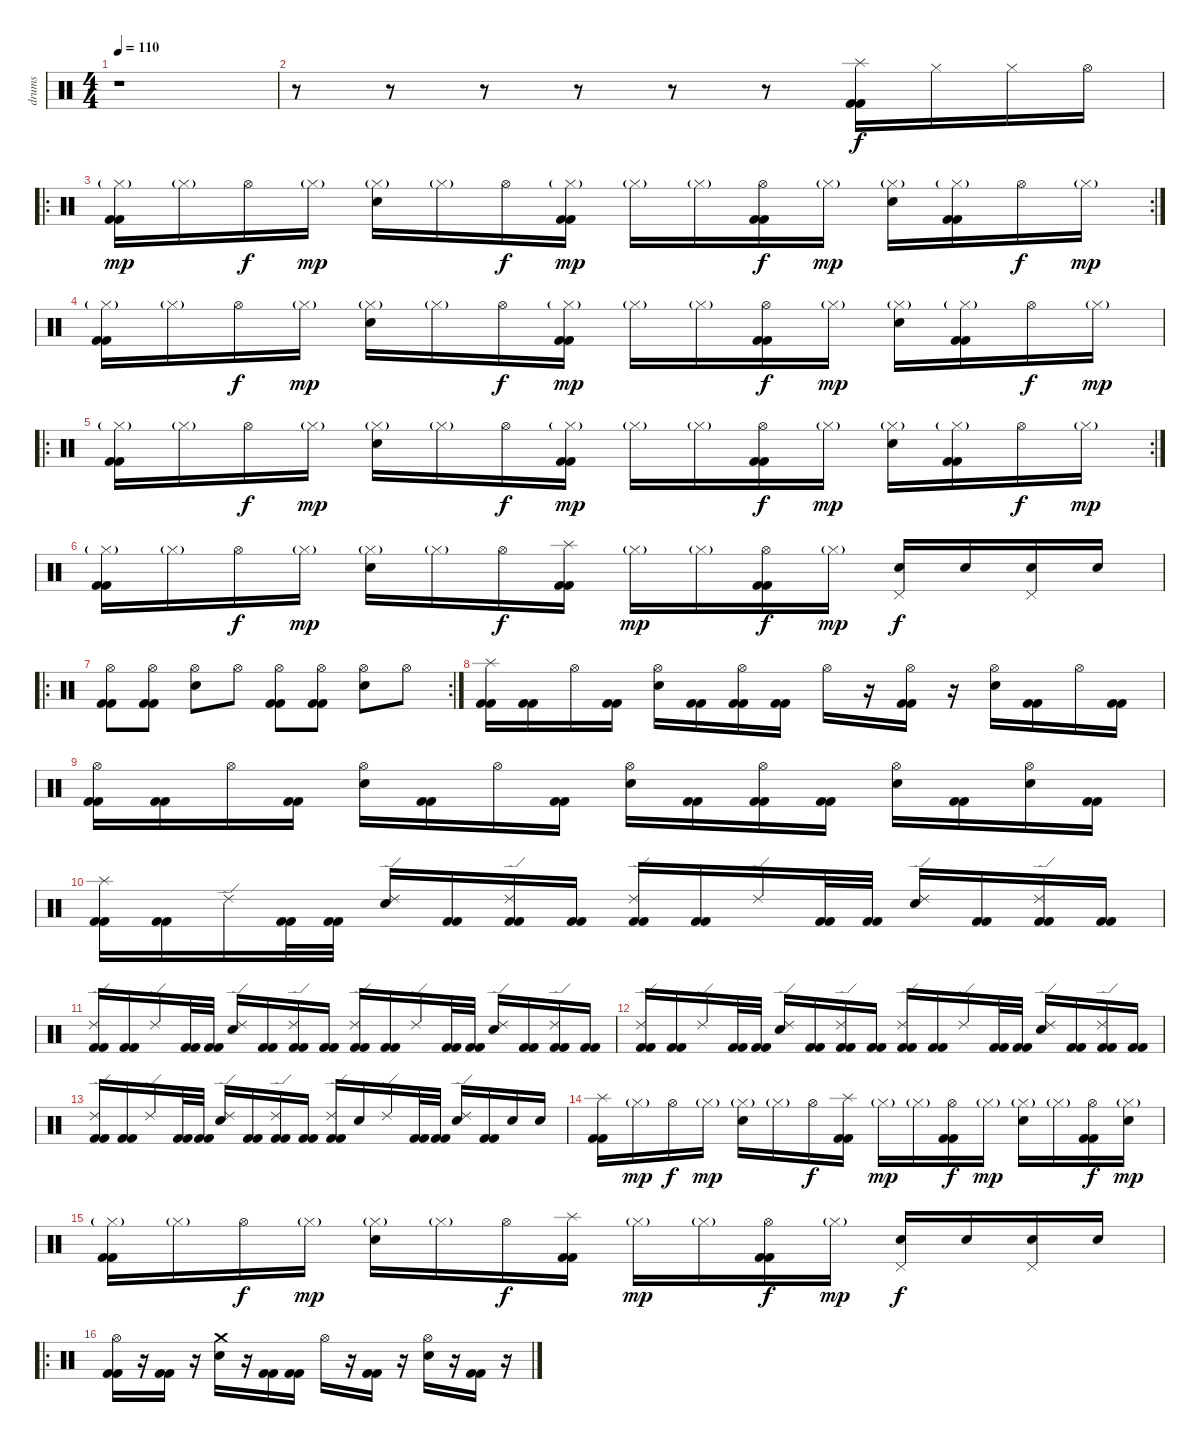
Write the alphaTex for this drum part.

\track ("drums" "drums") {instrument percussion}
\staff {score}
\articulation defaults
\ts (4 4)
\tempo 110
\clef neutral
\ks c
r.1{dy f} |
r.8 r.8 r.8 r.8 r.8 r.8 ("Splash (hit)" "Kick (hit) 2" "Kick (hit) 2").16 "Hi-Hat (closed)".16 "Hi-Hat (closed)".16 "Hi-Hat (open)".16 |
\ro
\rc 2
("Hi-Hat (closed)"{g} "Kick (hit) 2" "Kick (hit) 2").16{dy mp} "Hi-Hat (closed)"{g}.16 "Hi-Hat (open)".16{dy f} "Hi-Hat (closed)"{g}.16{dy mp} ("Hi-Hat (closed)"{g} "Electric Snare (hit)").16 "Hi-Hat (closed)"{g}.16 "Hi-Hat (open)".16{dy f} ("Hi-Hat (closed)"{g} "Kick (hit) 2" "Kick (hit) 2").16{dy mp} "Hi-Hat (closed)"{g}.16 "Hi-Hat (closed)"{g}.16 ("Hi-Hat (open)" "Kick (hit) 2" "Kick (hit) 2").16{dy f} "Hi-Hat (closed)"{g}.16{dy mp} ("Hi-Hat (closed)"{g} "Electric Snare (hit)").16 ("Hi-Hat (closed)"{g} "Kick (hit) 2" "Kick (hit) 2").16 "Hi-Hat (open)".16{dy f} "Hi-Hat (closed)"{g}.16{dy mp} |
("Hi-Hat (closed)"{g} "Kick (hit) 2" "Kick (hit) 2").16 "Hi-Hat (closed)"{g}.16 "Hi-Hat (open)".16{dy f} "Hi-Hat (closed)"{g}.16{dy mp} ("Hi-Hat (closed)"{g} "Electric Snare (hit)").16 "Hi-Hat (closed)"{g}.16 "Hi-Hat (open)".16{dy f} ("Hi-Hat (closed)"{g} "Kick (hit) 2" "Kick (hit) 2").16{dy mp} "Hi-Hat (closed)"{g}.16 "Hi-Hat (closed)"{g}.16 ("Hi-Hat (open)" "Kick (hit) 2" "Kick (hit) 2").16{dy f} "Hi-Hat (closed)"{g}.16{dy mp} ("Hi-Hat (closed)"{g} "Electric Snare (hit)").16 ("Hi-Hat (closed)"{g} "Kick (hit) 2" "Kick (hit) 2").16 "Hi-Hat (open)".16{dy f} "Hi-Hat (closed)"{g}.16{dy mp} |
\ro
\rc 2
("Hi-Hat (closed)"{g} "Kick (hit) 2" "Kick (hit) 2").16 "Hi-Hat (closed)"{g}.16 "Hi-Hat (open)".16{dy f} "Hi-Hat (closed)"{g}.16{dy mp} ("Hi-Hat (closed)"{g} "Electric Snare (hit)").16 "Hi-Hat (closed)"{g}.16 "Hi-Hat (open)".16{dy f} ("Hi-Hat (closed)"{g} "Kick (hit) 2" "Kick (hit) 2").16{dy mp} "Hi-Hat (closed)"{g}.16 "Hi-Hat (closed)"{g}.16 ("Hi-Hat (open)" "Kick (hit) 2" "Kick (hit) 2").16{dy f} "Hi-Hat (closed)"{g}.16{dy mp} ("Hi-Hat (closed)"{g} "Electric Snare (hit)").16 ("Hi-Hat (closed)"{g} "Kick (hit) 2" "Kick (hit) 2").16 "Hi-Hat (open)".16{dy f} "Hi-Hat (closed)"{g}.16{dy mp} |
("Hi-Hat (closed)"{g} "Kick (hit) 2" "Kick (hit) 2").16 "Hi-Hat (closed)"{g}.16 "Hi-Hat (open)".16{dy f} "Hi-Hat (closed)"{g}.16{dy mp} ("Hi-Hat (closed)"{g} "Electric Snare (hit)").16 "Hi-Hat (closed)"{g}.16 "Hi-Hat (open)".16{dy f} ("Splash (hit)" "Kick (hit) 2" "Kick (hit) 2").16 "Hi-Hat (closed)"{g}.16{dy mp} "Hi-Hat (closed)"{g}.16 ("Hi-Hat (open)" "Kick (hit) 2" "Kick (hit) 2").16{dy f} "Hi-Hat (closed)"{g}.16{dy mp} ("Pedal Hi-Hat (hit)" "Electric Snare (hit)").16{dy f} "Electric Snare (hit)".16 ("Pedal Hi-Hat (hit)" "Electric Snare (hit)").16 "Electric Snare (hit)".16 |
\ro
\rc 2
("Hi-Hat (open)" "Kick (hit) 2" "Kick (hit) 2").8 ("Hi-Hat (open)" "Kick (hit) 2" "Kick (hit) 2").8 ("Hi-Hat (open)" "Electric Snare (hit)").8 "Hi-Hat (open)".8 ("Hi-Hat (open)" "Kick (hit) 2" "Kick (hit) 2").8 ("Hi-Hat (open)" "Kick (hit) 2" "Kick (hit) 2").8 ("Hi-Hat (open)" "Electric Snare (hit)").8 "Hi-Hat (open)".8 |
("Splash (hit)" "Kick (hit) 2" "Kick (hit) 2").16 ("Kick (hit) 2" "Kick (hit) 2").16 "Hi-Hat (open)".16 ("Kick (hit) 2" "Kick (hit) 2").16 ("Hi-Hat (open)" "Electric Snare (hit)").16 ("Kick (hit) 2" "Kick (hit) 2").16 ("Hi-Hat (open)" "Kick (hit) 2" "Kick (hit) 2").16 ("Kick (hit) 2" "Kick (hit) 2").16 "Hi-Hat (open)".16 r.16 ("Hi-Hat (open)" "Kick (hit) 2" "Kick (hit) 2").16 r.16 ("Hi-Hat (open)" "Electric Snare (hit)").16 ("Kick (hit) 2" "Kick (hit) 2").16 "Hi-Hat (open)".16 ("Kick (hit) 2" "Kick (hit) 2").16 |
("Hi-Hat (open)" "Kick (hit) 2" "Kick (hit) 2").16 ("Kick (hit) 2" "Kick (hit) 2").16 "Hi-Hat (open)".16 ("Kick (hit) 2" "Kick (hit) 2").16 ("Hi-Hat (open)" "Electric Snare (hit)").16 ("Kick (hit) 2" "Kick (hit) 2").16 "Hi-Hat (open)".16 ("Kick (hit) 2" "Kick (hit) 2").16 ("Hi-Hat (open)" "Electric Snare (hit)").16 ("Kick (hit) 2" "Kick (hit) 2").16 ("Hi-Hat (open)" "Kick (hit) 2" "Kick (hit) 2").16 ("Kick (hit) 2" "Kick (hit) 2").16 ("Hi-Hat (open)" "Electric Snare (hit)").16 ("Kick (hit) 2" "Kick (hit) 2").16 ("Hi-Hat (open)" "Electric Snare (hit)").16 ("Kick (hit) 2" "Kick (hit) 2").16 |
("Splash (hit)" "Kick (hit) 2" "Kick (hit) 2").16 ("Kick (hit) 2" "Kick (hit) 2").16 "Ride (edge) 2".16 ("Kick (hit) 2" "Kick (hit) 2").32 ("Kick (hit) 2" "Kick (hit) 2").32 ("Ride (edge) 2" "Electric Snare (hit)").16 ("Kick (hit) 2" "Kick (hit) 2").16 ("Ride (edge) 2" "Kick (hit) 2" "Kick (hit) 2").16 ("Kick (hit) 2" "Kick (hit) 2").16 ("Ride (edge) 2" "Kick (hit) 2" "Kick (hit) 2").16 ("Kick (hit) 2" "Kick (hit) 2").16 "Ride (edge) 2".16 ("Kick (hit) 2" "Kick (hit) 2").32 ("Kick (hit) 2" "Kick (hit) 2").32 ("Ride (edge) 2" "Electric Snare (hit)").16 ("Kick (hit) 2" "Kick (hit) 2").16 ("Ride (edge) 2" "Kick (hit) 2" "Kick (hit) 2").16 ("Kick (hit) 2" "Kick (hit) 2").16 |
("Ride (edge) 2" "Kick (hit) 2" "Kick (hit) 2").16 ("Kick (hit) 2" "Kick (hit) 2").16 "Ride (edge) 2".16 ("Kick (hit) 2" "Kick (hit) 2").32 ("Kick (hit) 2" "Kick (hit) 2").32 ("Ride (edge) 2" "Electric Snare (hit)").16 ("Kick (hit) 2" "Kick (hit) 2").16 ("Ride (edge) 2" "Kick (hit) 2" "Kick (hit) 2").16 ("Kick (hit) 2" "Kick (hit) 2").16 ("Ride (edge) 2" "Kick (hit) 2" "Kick (hit) 2").16 ("Kick (hit) 2" "Kick (hit) 2").16 "Ride (edge) 2".16 ("Kick (hit) 2" "Kick (hit) 2").32 ("Kick (hit) 2" "Kick (hit) 2").32 ("Ride (edge) 2" "Electric Snare (hit)").16 ("Kick (hit) 2" "Kick (hit) 2").16 ("Ride (edge) 2" "Kick (hit) 2" "Kick (hit) 2").16 ("Kick (hit) 2" "Kick (hit) 2").16 |
("Ride (edge) 2" "Kick (hit) 2" "Kick (hit) 2").16 ("Kick (hit) 2" "Kick (hit) 2").16 "Ride (edge) 2".16 ("Kick (hit) 2" "Kick (hit) 2").32 ("Kick (hit) 2" "Kick (hit) 2").32 ("Ride (edge) 2" "Electric Snare (hit)").16 ("Kick (hit) 2" "Kick (hit) 2").16 ("Ride (edge) 2" "Kick (hit) 2" "Kick (hit) 2").16 ("Kick (hit) 2" "Kick (hit) 2").16 ("Ride (edge) 2" "Kick (hit) 2" "Kick (hit) 2").16 ("Kick (hit) 2" "Kick (hit) 2").16 "Ride (edge) 2".16 ("Kick (hit) 2" "Kick (hit) 2").32 ("Kick (hit) 2" "Kick (hit) 2").32 ("Ride (edge) 2" "Electric Snare (hit)").16 ("Kick (hit) 2" "Kick (hit) 2").16 ("Ride (edge) 2" "Kick (hit) 2" "Kick (hit) 2").16 ("Kick (hit) 2" "Kick (hit) 2").16 |
("Ride (edge) 2" "Kick (hit) 2" "Kick (hit) 2").16 ("Kick (hit) 2" "Kick (hit) 2").16 "Ride (edge) 2".16 ("Kick (hit) 2" "Kick (hit) 2").32 ("Kick (hit) 2" "Kick (hit) 2").32 ("Ride (edge) 2" "Electric Snare (hit)").16 ("Kick (hit) 2" "Kick (hit) 2").16 ("Ride (edge) 2" "Kick (hit) 2" "Kick (hit) 2").16 ("Kick (hit) 2" "Kick (hit) 2").16 ("Ride (edge) 2" "Kick (hit) 2" "Kick (hit) 2").16 "Electric Snare (hit)".16 "Ride (edge) 2".16 ("Kick (hit) 2" "Kick (hit) 2").32 ("Kick (hit) 2" "Kick (hit) 2").32 ("Ride (edge) 2" "Electric Snare (hit)").16 ("Kick (hit) 2" "Kick (hit) 2").16 "Electric Snare (hit)".16 "Electric Snare (hit)".16 |
("Splash (hit)" "Kick (hit) 2" "Kick (hit) 2").16 "Hi-Hat (closed)"{g}.16{dy mp} "Hi-Hat (open)".16{dy f} "Hi-Hat (closed)"{g}.16{dy mp} ("Hi-Hat (closed)"{g} "Electric Snare (hit)").16 "Hi-Hat (closed)"{g}.16 "Hi-Hat (open)".16{dy f} ("Splash (hit)" "Kick (hit) 2" "Kick (hit) 2").16 "Hi-Hat (closed)"{g}.16{dy mp} "Hi-Hat (closed)"{g}.16 ("Hi-Hat (open)" "Kick (hit) 2" "Kick (hit) 2").16{dy f} "Hi-Hat (closed)"{g}.16{dy mp} ("Hi-Hat (closed)"{g} "Electric Snare (hit)").16 "Hi-Hat (closed)"{g}.16 ("Hi-Hat (open)" "Kick (hit) 2" "Kick (hit) 2").16{dy f} ("Hi-Hat (closed)"{g} "Electric Snare (hit)").16{dy mp} |
("Hi-Hat (closed)"{g} "Kick (hit) 2" "Kick (hit) 2").16 "Hi-Hat (closed)"{g}.16 "Hi-Hat (open)".16{dy f} "Hi-Hat (closed)"{g}.16{dy mp} ("Hi-Hat (closed)"{g} "Electric Snare (hit)").16 "Hi-Hat (closed)"{g}.16 "Hi-Hat (open)".16{dy f} ("Splash (hit)" "Kick (hit) 2" "Kick (hit) 2").16 "Hi-Hat (closed)"{g}.16{dy mp} "Hi-Hat (closed)"{g}.16 ("Hi-Hat (open)" "Kick (hit) 2" "Kick (hit) 2").16{dy f} "Hi-Hat (closed)"{g}.16{dy mp} ("Pedal Hi-Hat (hit)" "Electric Snare (hit)").16{dy f} "Electric Snare (hit)".16 ("Pedal Hi-Hat (hit)" "Electric Snare (hit)").16 "Electric Snare (hit)".16 |
\ro
("Hi-Hat (open)" "Kick (hit) 2" "Kick (hit) 2").16 r.16 ("Kick (hit) 2" "Kick (hit) 2").16 r.16 ("Crash medium (hit)" "Electric Snare (hit)").16 r.16 ("Kick (hit) 2" "Kick (hit) 2").16 ("Kick (hit) 2" "Kick (hit) 2").16 "Hi-Hat (open)".16 r.16 ("Kick (hit) 2" "Kick (hit) 2").16 r.16 ("Hi-Hat (open)" "Electric Snare (hit)").16 r.16 ("Kick (hit) 2" "Kick (hit) 2").16 r.16
